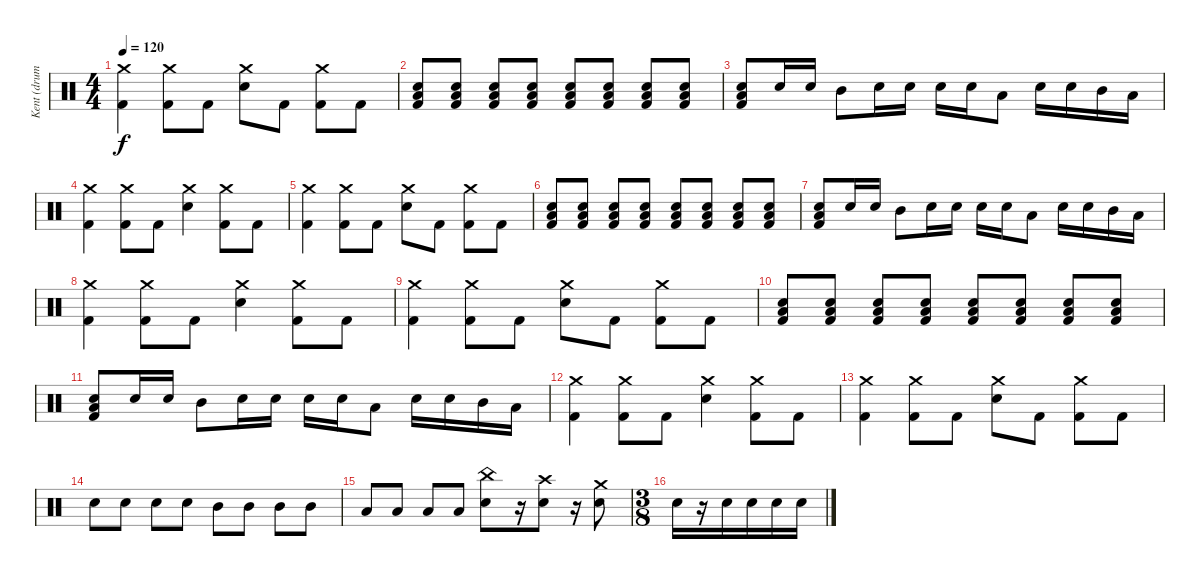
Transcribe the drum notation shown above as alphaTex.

\track ("Kent (drums)" "Kent (drum") {instrument percussion}
\staff {score}
\articulation defaults
\ts (4 4)
\tempo 120
\clef neutral
\ks c
("Crash medium (hit)" "Kick (hit) 2").4{dy f} ("Crash medium (hit)" "Kick (hit) 2").8 "Kick (hit) 2".8 ("Crash medium (hit)" "Snare (hit) 2").8 "Kick (hit) 2".8 ("Crash medium (hit)" "Kick (hit) 2").8 "Kick (hit) 2".8 |
("Low Floor Tom (hit)" "Snare (hit) 2" "Kick (hit) 2").8 ("Low Floor Tom (hit)" "Snare (hit) 2" "Kick (hit) 2").8 ("Low Floor Tom (hit)" "Snare (hit) 2" "Kick (hit) 2").8 ("Low Floor Tom (hit)" "Snare (hit) 2" "Kick (hit) 2").8 ("Low Floor Tom (hit)" "Snare (hit) 2" "Kick (hit) 2").8 ("Low Floor Tom (hit)" "Snare (hit) 2" "Kick (hit) 2").8 ("Low Floor Tom (hit)" "Snare (hit) 2" "Kick (hit) 2").8 ("Low Floor Tom (hit)" "Snare (hit) 2" "Kick (hit) 2").8 |
("Low Floor Tom (hit)" "Snare (hit) 2" "Kick (hit) 2").8 "Snare (hit) 2".16 "Snare (hit) 2".16 "Mid Tom (hit)".8 "Snare (hit) 2".16 "Snare (hit) 2".16 "Snare (hit) 2".16 "Snare (hit) 2".16 "Low Tom (hit)".8 "Snare (hit) 2".16 "Snare (hit) 2".16 "Mid Tom (hit)".16 "Low Tom (hit)".16 |
("Crash medium (hit)" "Kick (hit) 2").4 ("Crash medium (hit)" "Kick (hit) 2").8 "Kick (hit) 2".8 ("Crash medium (hit)" "Snare (hit) 2").4 ("Crash medium (hit)" "Kick (hit) 2").8 "Kick (hit) 2".8 |
("Crash medium (hit)" "Kick (hit) 2").4 ("Crash medium (hit)" "Kick (hit) 2").8 "Kick (hit) 2".8 ("Crash medium (hit)" "Snare (hit) 2").8 "Kick (hit) 2".8 ("Crash medium (hit)" "Kick (hit) 2").8 "Kick (hit) 2".8 |
("Low Floor Tom (hit)" "Snare (hit) 2" "Kick (hit) 2").8 ("Low Floor Tom (hit)" "Snare (hit) 2" "Kick (hit) 2").8 ("Low Floor Tom (hit)" "Snare (hit) 2" "Kick (hit) 2").8 ("Low Floor Tom (hit)" "Snare (hit) 2" "Kick (hit) 2").8 ("Low Floor Tom (hit)" "Snare (hit) 2" "Kick (hit) 2").8 ("Low Floor Tom (hit)" "Snare (hit) 2" "Kick (hit) 2").8 ("Low Floor Tom (hit)" "Snare (hit) 2" "Kick (hit) 2").8 ("Low Floor Tom (hit)" "Snare (hit) 2" "Kick (hit) 2").8 |
("Low Floor Tom (hit)" "Snare (hit) 2" "Kick (hit) 2").8 "Snare (hit) 2".16 "Snare (hit) 2".16 "Mid Tom (hit)".8 "Snare (hit) 2".16 "Snare (hit) 2".16 "Snare (hit) 2".16 "Snare (hit) 2".16 "Low Tom (hit)".8 "Snare (hit) 2".16 "Snare (hit) 2".16 "Mid Tom (hit)".16 "Low Tom (hit)".16 |
("Crash medium (hit)" "Kick (hit) 2").4 ("Crash medium (hit)" "Kick (hit) 2").8 "Kick (hit) 2".8 ("Crash medium (hit)" "Snare (hit) 2").4 ("Crash medium (hit)" "Kick (hit) 2").8 "Kick (hit) 2".8 |
("Crash medium (hit)" "Kick (hit) 2").4 ("Crash medium (hit)" "Kick (hit) 2").8 "Kick (hit) 2".8 ("Crash medium (hit)" "Snare (hit) 2").8 "Kick (hit) 2".8 ("Crash medium (hit)" "Kick (hit) 2").8 "Kick (hit) 2".8 |
("Low Floor Tom (hit)" "Snare (hit) 2" "Kick (hit) 2").8 ("Low Floor Tom (hit)" "Snare (hit) 2" "Kick (hit) 2").8 ("Low Floor Tom (hit)" "Snare (hit) 2" "Kick (hit) 2").8 ("Low Floor Tom (hit)" "Snare (hit) 2" "Kick (hit) 2").8 ("Low Floor Tom (hit)" "Snare (hit) 2" "Kick (hit) 2").8 ("Low Floor Tom (hit)" "Snare (hit) 2" "Kick (hit) 2").8 ("Low Floor Tom (hit)" "Snare (hit) 2" "Kick (hit) 2").8 ("Low Floor Tom (hit)" "Snare (hit) 2" "Kick (hit) 2").8 |
("Low Floor Tom (hit)" "Snare (hit) 2" "Kick (hit) 2").8 "Snare (hit) 2".16 "Snare (hit) 2".16 "Mid Tom (hit)".8 "Snare (hit) 2".16 "Snare (hit) 2".16 "Snare (hit) 2".16 "Snare (hit) 2".16 "Low Tom (hit)".8 "Snare (hit) 2".16 "Snare (hit) 2".16 "Mid Tom (hit)".16 "Low Tom (hit)".16 |
("Crash medium (hit)" "Kick (hit) 2").4 ("Crash medium (hit)" "Kick (hit) 2").8 "Kick (hit) 2".8 ("Crash medium (hit)" "Snare (hit) 2").4 ("Crash medium (hit)" "Kick (hit) 2").8 "Kick (hit) 2".8 |
("Crash medium (hit)" "Kick (hit) 2").4 ("Crash medium (hit)" "Kick (hit) 2").8 "Kick (hit) 2".8 ("Crash medium (hit)" "Snare (hit) 2").8 "Kick (hit) 2".8 ("Crash medium (hit)" "Kick (hit) 2").8 "Kick (hit) 2".8 |
"Snare (hit) 2".8 "Snare (hit) 2".8 "Snare (hit) 2".8 "Snare (hit) 2".8 "Mid Tom (hit)".8 "Mid Tom (hit)".8 "Mid Tom (hit)".8 "Mid Tom (hit)".8 |
"Low Tom (hit)".8 "Low Tom (hit)".8 "Low Tom (hit)".8 "Low Tom (hit)".8 ("China (hit)" "Snare (hit) 2").8 r.16 ("Crash high (hit)" "Snare (hit) 2").8 r.16 ("Crash medium (hit)" "Snare (hit) 2").8 |
\ts (3 8)
"Snare (hit) 2".16 r.16 "Snare (hit) 2".16 "Snare (hit) 2".16 "Snare (hit) 2".16 "Snare (hit) 2".16
